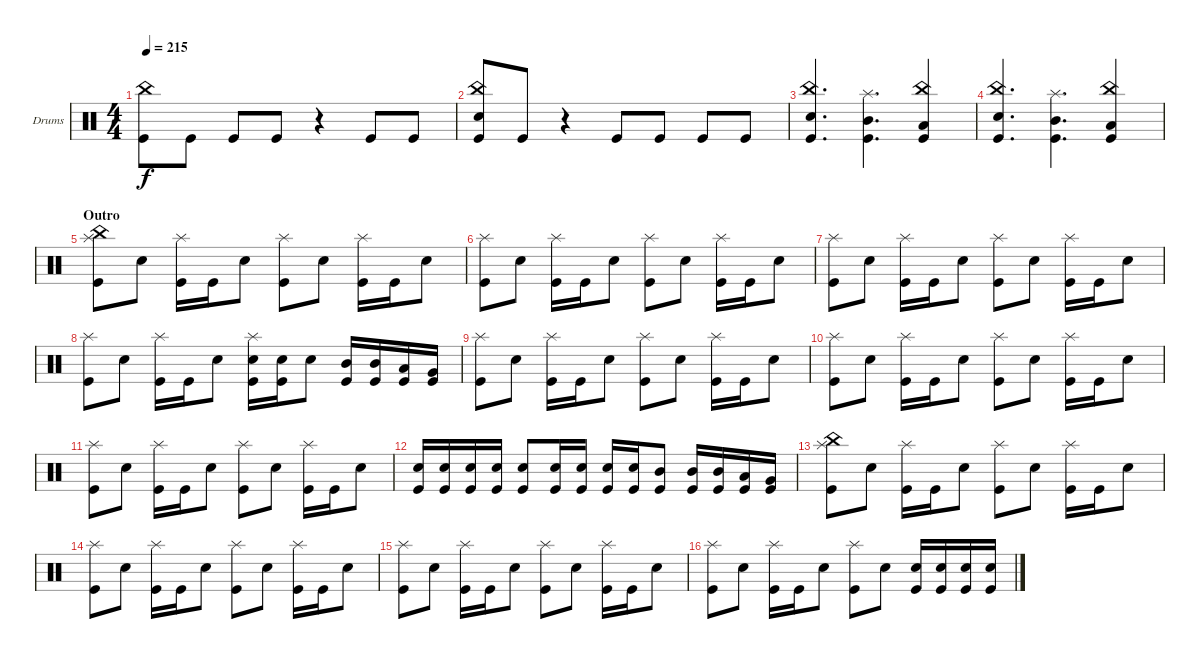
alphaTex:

\defaultSystemsLayout 4
\bracketExtendMode groupsimilarinstruments
\firstSystemTrackNameOrientation horizontal
\otherSystemsTrackNameOrientation horizontal
\track ("Drumkit" "Drums") {instrument percussion}
\staff {score}
\articulation defaults
\ts (4 4)
\tempo 215
\clef neutral
\ks c
("Kick (hit)" "China (hit)").8{dy f} "Kick (hit)".8 "Kick (hit)".8 "Kick (hit)".8 r.4 "Kick (hit)".8 "Kick (hit)".8 |
("Kick (hit)" "China (hit)" "Snare (hit) 2").8 "Kick (hit)".8 r.4 "Kick (hit)".8 "Kick (hit)".8 "Kick (hit)".8 "Kick (hit)".8 |
("Kick (hit)" "Snare (hit) 2" "China (hit)").4{d} ("Kick (hit)" "Mid Tom (hit)" "Splash (hit)").4{d} ("Kick (hit)" "Low Tom (hit)" "China (hit)").4 |
("Kick (hit)" "Snare (hit) 2" "China (hit)").4{d} ("Kick (hit)" "Mid Tom (hit)" "Splash (hit)").4{d} ("Kick (hit)" "Low Tom (hit)" "China (hit)").4 |
\section ("" "Outro")
("Splash (hit)" "Kick (hit)" "China (hit)").8 "Snare (hit) 2".8 ("Splash (hit)" "Kick (hit)").16 "Kick (hit)".16 "Snare (hit) 2".8 ("Splash (hit)" "Kick (hit)").8 "Snare (hit) 2".8 ("Splash (hit)" "Kick (hit)").16 "Kick (hit)".16 "Snare (hit) 2".8 |
("Splash (hit)" "Kick (hit)").8 "Snare (hit) 2".8 ("Splash (hit)" "Kick (hit)").16 "Kick (hit)".16 "Snare (hit) 2".8 ("Splash (hit)" "Kick (hit)").8 "Snare (hit) 2".8 ("Splash (hit)" "Kick (hit)").16 "Kick (hit)".16 "Snare (hit) 2".8 |
("Splash (hit)" "Kick (hit)").8 "Snare (hit) 2".8 ("Splash (hit)" "Kick (hit)").16 "Kick (hit)".16 "Snare (hit) 2".8 ("Splash (hit)" "Kick (hit)").8 "Snare (hit) 2".8 ("Splash (hit)" "Kick (hit)").16 "Kick (hit)".16 "Snare (hit) 2".8 |
("Splash (hit)" "Kick (hit)").8 "Snare (hit) 2".8 ("Splash (hit)" "Kick (hit)").16 "Kick (hit)".16 "Snare (hit) 2".8 ("Splash (hit)" "Kick (hit)" "Snare (hit) 2").16 ("Kick (hit)" "Snare (hit) 2").16 "Snare (hit) 2".8 ("Kick (hit)" "Mid Tom (hit)").16 ("Kick (hit)" "Mid Tom (hit)").16 ("Kick (hit)" "Low Tom (hit)").16 ("Kick (hit)" "Very Low Tom (hit)").16 |
("Splash (hit)" "Kick (hit)").8 "Snare (hit) 2".8 ("Splash (hit)" "Kick (hit)").16 "Kick (hit)".16 "Snare (hit) 2".8 ("Splash (hit)" "Kick (hit)").8 "Snare (hit) 2".8 ("Splash (hit)" "Kick (hit)").16 "Kick (hit)".16 "Snare (hit) 2".8 |
("Splash (hit)" "Kick (hit)").8 "Snare (hit) 2".8 ("Splash (hit)" "Kick (hit)").16 "Kick (hit)".16 "Snare (hit) 2".8 ("Splash (hit)" "Kick (hit)").8 "Snare (hit) 2".8 ("Splash (hit)" "Kick (hit)").16 "Kick (hit)".16 "Snare (hit) 2".8 |
("Splash (hit)" "Kick (hit)").8 "Snare (hit) 2".8 ("Splash (hit)" "Kick (hit)").16 "Kick (hit)".16 "Snare (hit) 2".8 ("Splash (hit)" "Kick (hit)").8 "Snare (hit) 2".8 ("Splash (hit)" "Kick (hit)").16 "Kick (hit)".16 "Snare (hit) 2".8 |
("Kick (hit)" "Snare (hit) 2").16 ("Kick (hit)" "Snare (hit) 2").16 ("Kick (hit)" "Snare (hit) 2").16 ("Kick (hit)" "Snare (hit) 2").16 ("Kick (hit)" "Snare (hit) 2").8 ("Kick (hit)" "Snare (hit) 2").16 ("Kick (hit)" "Snare (hit) 2").16 ("Kick (hit)" "Snare (hit) 2").16 ("Kick (hit)" "Snare (hit) 2").16 ("Kick (hit)" "Mid Tom (hit)").8 ("Kick (hit)" "Mid Tom (hit)").16 ("Kick (hit)" "Mid Tom (hit)").16 ("Kick (hit)" "Low Tom (hit)").16 ("Kick (hit)" "Very Low Tom (hit)").16 |
("Splash (hit)" "Kick (hit)" "China (hit)").8 "Snare (hit) 2".8 ("Splash (hit)" "Kick (hit)").16 "Kick (hit)".16 "Snare (hit) 2".8 ("Splash (hit)" "Kick (hit)").8 "Snare (hit) 2".8 ("Splash (hit)" "Kick (hit)").16 "Kick (hit)".16 "Snare (hit) 2".8 |
("Splash (hit)" "Kick (hit)").8 "Snare (hit) 2".8 ("Splash (hit)" "Kick (hit)").16 "Kick (hit)".16 "Snare (hit) 2".8 ("Splash (hit)" "Kick (hit)").8 "Snare (hit) 2".8 ("Splash (hit)" "Kick (hit)").16 "Kick (hit)".16 "Snare (hit) 2".8 |
("Splash (hit)" "Kick (hit)").8 "Snare (hit) 2".8 ("Splash (hit)" "Kick (hit)").16 "Kick (hit)".16 "Snare (hit) 2".8 ("Splash (hit)" "Kick (hit)").8 "Snare (hit) 2".8 ("Splash (hit)" "Kick (hit)").16 "Kick (hit)".16 "Snare (hit) 2".8 |
("Splash (hit)" "Kick (hit)").8 "Snare (hit) 2".8 ("Splash (hit)" "Kick (hit)").16 "Kick (hit)".16 "Snare (hit) 2".8 ("Splash (hit)" "Kick (hit)").8 "Snare (hit) 2".8 ("Kick (hit)" "Snare (hit) 2").16 ("Kick (hit)" "Snare (hit) 2").16 ("Kick (hit)" "Snare (hit) 2").16 ("Kick (hit)" "Snare (hit) 2").16
